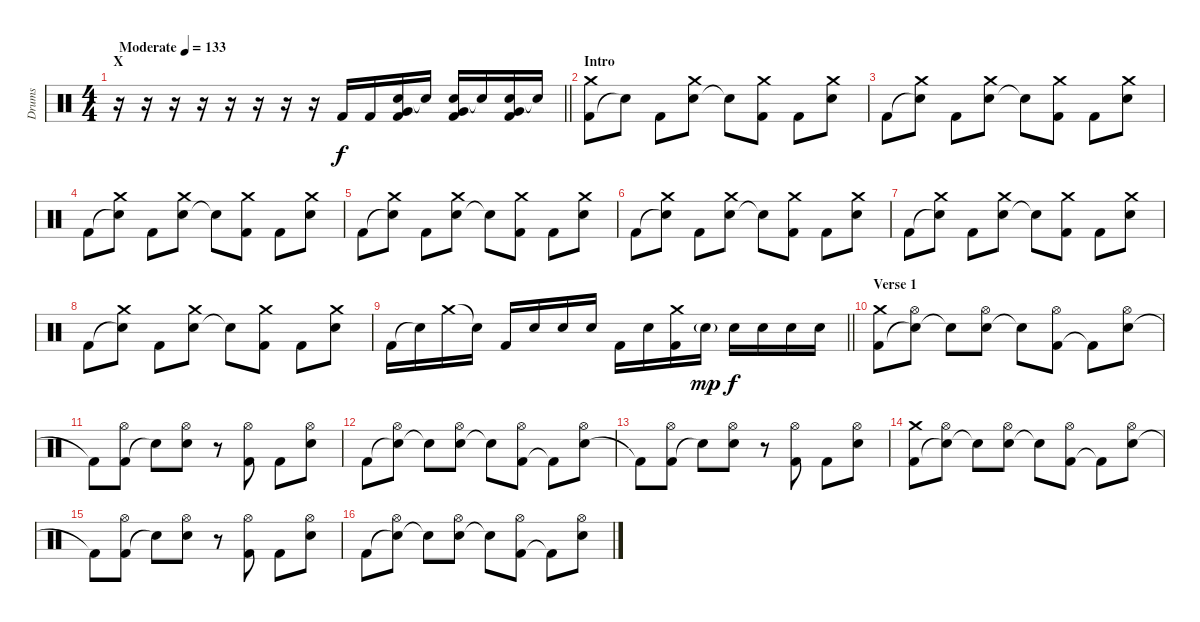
\track ("Drums" "Drums") {instrument percussion}
\staff {score}
\articulation defaults
\ts (4 4)
\section ("" "X")
\tempo (133 "Moderate")
\clef neutral
\barLineRight lightlight
\ks c
r.16{dy f} r.16 r.16 r.16 r.16 r.16 r.16 r.16 "Kick (hit) 2".16 "Kick (hit) 2".16 ("Electric Snare (hit)" "Very Low Tom (hit)" "Kick (hit) 2").16 "Snare (hit)"{t}.16 ("Electric Snare (hit)" "Very Low Tom (hit)" "Kick (hit) 2").16 "Snare (hit)"{t}.16 ("Electric Snare (hit)" "Very Low Tom (hit)" "Kick (hit) 2").16 "Snare (hit)"{t}.16 |
\section ("" "Intro")
("Kick (hit) 2" "Crash medium (hit)").8 "Snare (hit)"{t}.8 "Kick (hit) 2".8 ("Electric Snare (hit)" "Crash medium (hit)").8 "Snare (hit)"{t}.8 ("Kick (hit) 2" "Crash medium (hit)").8 "Kick (hit) 2".8 ("Electric Snare (hit)" "Crash medium (hit)").8 |
"Kick (hit) 2".8 ("Snare (hit)"{t} "Crash medium (hit)").8 "Kick (hit) 2".8 ("Electric Snare (hit)" "Crash medium (hit)").8 "Snare (hit)"{t}.8 ("Kick (hit) 2" "Crash medium (hit)").8 "Kick (hit) 2".8 ("Electric Snare (hit)" "Crash medium (hit)").8 |
"Kick (hit) 2".8 ("Snare (hit)"{t} "Crash medium (hit)").8 "Kick (hit) 2".8 ("Electric Snare (hit)" "Crash medium (hit)").8 "Snare (hit)"{t}.8 ("Kick (hit) 2" "Crash medium (hit)").8 "Kick (hit) 2".8 ("Electric Snare (hit)" "Crash medium (hit)").8 |
"Kick (hit) 2".8 ("Snare (hit)"{t} "Crash medium (hit)").8 "Kick (hit) 2".8 ("Electric Snare (hit)" "Crash medium (hit)").8 "Snare (hit)"{t}.8 ("Kick (hit) 2" "Crash medium (hit)").8 "Kick (hit) 2".8 ("Electric Snare (hit)" "Crash medium (hit)").8 |
"Kick (hit) 2".8 ("Snare (hit)"{t} "Crash medium (hit)").8 "Kick (hit) 2".8 ("Electric Snare (hit)" "Crash medium (hit)").8 "Snare (hit)"{t}.8 ("Kick (hit) 2" "Crash medium (hit)").8 "Kick (hit) 2".8 ("Electric Snare (hit)" "Crash medium (hit)").8 |
"Kick (hit) 2".8 ("Snare (hit)"{t} "Crash medium (hit)").8 "Kick (hit) 2".8 ("Electric Snare (hit)" "Crash medium (hit)").8 "Snare (hit)"{t}.8 ("Kick (hit) 2" "Crash medium (hit)").8 "Kick (hit) 2".8 ("Electric Snare (hit)" "Crash medium (hit)").8 |
"Kick (hit) 2".8 ("Snare (hit)"{t} "Crash medium (hit)").8 "Kick (hit) 2".8 ("Electric Snare (hit)" "Crash medium (hit)").8 "Snare (hit)"{t}.8 ("Kick (hit) 2" "Crash medium (hit)").8 "Kick (hit) 2".8 ("Electric Snare (hit)" "Crash medium (hit)").8 |
\barLineRight lightlight "Kick (hit) 2".16 "Snare (hit)"{t}.16 "Crash medium (hit)".16 "Snare (hit)"{t}.16 "Kick (hit) 2".16 "Electric Snare (hit)".16 "Electric Snare (hit)".16 "Electric Snare (hit)".16 "Kick (hit) 2".16 "Electric Snare (hit)".16
("Kick (hit) 2" "Crash medium (hit)").16 "Electric Snare (hit)"{g}.16{dy mp} "Electric Snare (hit)".16{dy f} "Electric Snare (hit)".16 "Electric Snare (hit)".16 "Electric Snare (hit)".16 |
\section ("" "Verse 1")
("Kick (hit) 2" "Crash medium (hit)").8 ("Snare (hit)"{t} "Hi-Hat (open)").8 "Snare (hit)"{t}.8 ("Electric Snare (hit)" "Hi-Hat (open)").8 "Snare (hit)"{t}.8 ("Kick (hit) 2" "Hi-Hat (open)").8 "Kick (hit) 2"{t}.8 ("Electric Snare (hit)" "Hi-Hat (open)").8 |
"Kick (hit) 2"{t}.8 ("Kick (hit) 2" "Hi-Hat (open)").8 "Electric Snare (hit)"{t}.8 ("Electric Snare (hit)" "Hi-Hat (open)").8 r.8 ("Kick (hit) 2" "Hi-Hat (open)").8 "Kick (hit) 2".8 ("Electric Snare (hit)" "Hi-Hat (open)").8 |
"Kick (hit) 2".8 ("Snare (hit)"{t} "Hi-Hat (open)").8 "Snare (hit)"{t}.8 ("Electric Snare (hit)" "Hi-Hat (open)").8 "Snare (hit)"{t}.8 ("Kick (hit) 2" "Hi-Hat (open)").8 "Kick (hit) 2"{t}.8 ("Electric Snare (hit)" "Hi-Hat (open)").8 |
"Kick (hit) 2"{t}.8 ("Kick (hit) 2" "Hi-Hat (open)").8 "Electric Snare (hit)"{t}.8 ("Electric Snare (hit)" "Hi-Hat (open)").8 r.8 ("Kick (hit) 2" "Hi-Hat (open)").8 "Kick (hit) 2".8 ("Electric Snare (hit)" "Hi-Hat (open)").8 |
("Kick (hit) 2" "Crash medium (hit)").8 ("Snare (hit)"{t} "Hi-Hat (open)").8 "Snare (hit)"{t}.8 ("Electric Snare (hit)" "Hi-Hat (open)").8 "Snare (hit)"{t}.8 ("Kick (hit) 2" "Hi-Hat (open)").8 "Kick (hit) 2"{t}.8 ("Electric Snare (hit)" "Hi-Hat (open)").8 |
"Kick (hit) 2"{t}.8 ("Kick (hit) 2" "Hi-Hat (open)").8 "Electric Snare (hit)"{t}.8 ("Electric Snare (hit)" "Hi-Hat (open)").8 r.8 ("Kick (hit) 2" "Hi-Hat (open)").8 "Kick (hit) 2".8 ("Electric Snare (hit)" "Hi-Hat (open)").8 |
"Kick (hit) 2".8 ("Snare (hit)"{t} "Hi-Hat (open)").8 "Snare (hit)"{t}.8 ("Electric Snare (hit)" "Hi-Hat (open)").8 "Snare (hit)"{t}.8 ("Kick (hit) 2" "Hi-Hat (open)").8 "Kick (hit) 2"{t}.8 ("Electric Snare (hit)" "Hi-Hat (open)").8
